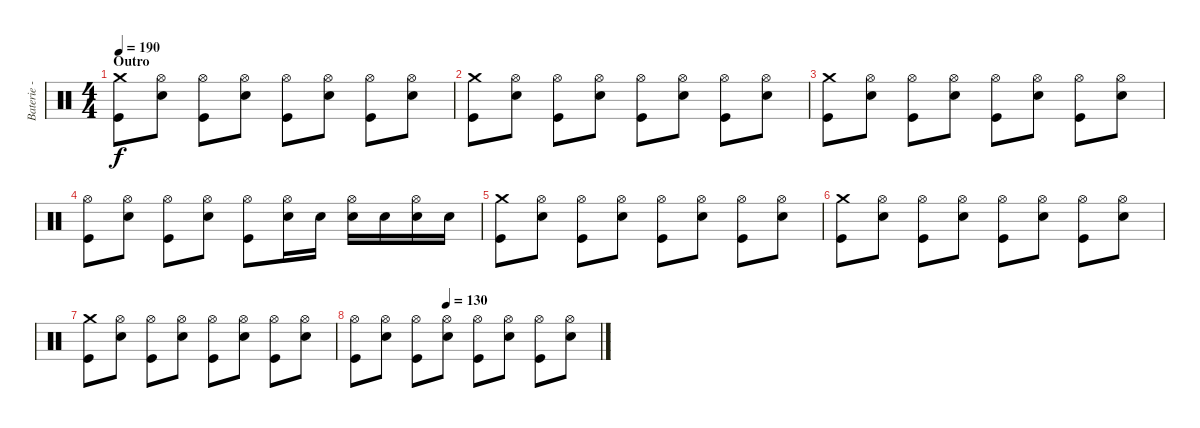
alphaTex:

\track ("Baterie - Alex" "Baterie - ") {instrument percussion}
\staff {score}
\articulation defaults
\ts (4 4)
\section ("" "Outro")
\tempo 190
\clef neutral
\ks c
("Crash medium (hit)" "Kick (hit)").8{dy f} ("Hi-Hat (open)" "Electric Snare (hit)").8 ("Hi-Hat (open)" "Kick (hit)").8 ("Hi-Hat (open)" "Electric Snare (hit)").8 ("Hi-Hat (open)" "Kick (hit)").8 ("Hi-Hat (open)" "Electric Snare (hit)").8 ("Hi-Hat (open)" "Kick (hit)").8 ("Hi-Hat (open)" "Electric Snare (hit)").8 |
("Crash medium (hit)" "Kick (hit)").8 ("Hi-Hat (open)" "Electric Snare (hit)").8 ("Hi-Hat (open)" "Kick (hit)").8 ("Hi-Hat (open)" "Electric Snare (hit)").8 ("Hi-Hat (open)" "Kick (hit)").8 ("Hi-Hat (open)" "Electric Snare (hit)").8 ("Hi-Hat (open)" "Kick (hit)").8 ("Hi-Hat (open)" "Electric Snare (hit)").8 |
("Crash medium (hit)" "Kick (hit)").8 ("Hi-Hat (open)" "Electric Snare (hit)").8 ("Hi-Hat (open)" "Kick (hit)").8 ("Hi-Hat (open)" "Electric Snare (hit)").8 ("Hi-Hat (open)" "Kick (hit)").8 ("Hi-Hat (open)" "Electric Snare (hit)").8 ("Hi-Hat (open)" "Kick (hit)").8 ("Hi-Hat (open)" "Electric Snare (hit)").8 |
("Hi-Hat (open)" "Kick (hit)").8 ("Hi-Hat (open)" "Electric Snare (hit)").8 ("Hi-Hat (open)" "Kick (hit)").8 ("Hi-Hat (open)" "Electric Snare (hit)").8 ("Hi-Hat (open)" "Kick (hit)").8 ("Hi-Hat (open)" "Electric Snare (hit)").16 "Electric Snare (hit)".16 ("Hi-Hat (open)" "Electric Snare (hit)").16 "Electric Snare (hit)".16 ("Hi-Hat (open)" "Electric Snare (hit)").16 "Electric Snare (hit)".16 |
("Crash medium (hit)" "Kick (hit)").8 ("Hi-Hat (open)" "Electric Snare (hit)").8 ("Hi-Hat (open)" "Kick (hit)").8 ("Hi-Hat (open)" "Electric Snare (hit)").8 ("Hi-Hat (open)" "Kick (hit)").8 ("Hi-Hat (open)" "Electric Snare (hit)").8 ("Hi-Hat (open)" "Kick (hit)").8 ("Hi-Hat (open)" "Electric Snare (hit)").8 |
("Crash medium (hit)" "Kick (hit)").8 ("Hi-Hat (open)" "Electric Snare (hit)").8 ("Hi-Hat (open)" "Kick (hit)").8 ("Hi-Hat (open)" "Electric Snare (hit)").8 ("Hi-Hat (open)" "Kick (hit)").8 ("Hi-Hat (open)" "Electric Snare (hit)").8 ("Hi-Hat (open)" "Kick (hit)").8 ("Hi-Hat (open)" "Electric Snare (hit)").8 |
("Crash medium (hit)" "Kick (hit)").8 ("Hi-Hat (open)" "Electric Snare (hit)").8 ("Hi-Hat (open)" "Kick (hit)").8 ("Hi-Hat (open)" "Electric Snare (hit)").8 ("Hi-Hat (open)" "Kick (hit)").8 ("Hi-Hat (open)" "Electric Snare (hit)").8 ("Hi-Hat (open)" "Kick (hit)").8 ("Hi-Hat (open)" "Electric Snare (hit)").8 |
\tempo (130 0.375)
("Hi-Hat (open)" "Kick (hit)").8 ("Hi-Hat (open)" "Electric Snare (hit)").8 ("Hi-Hat (open)" "Kick (hit)").8 ("Hi-Hat (open)" "Electric Snare (hit)").8 ("Hi-Hat (open)" "Kick (hit)").8 ("Hi-Hat (open)" "Electric Snare (hit)").8 ("Hi-Hat (open)" "Kick (hit)").8 ("Hi-Hat (open)" "Electric Snare (hit)").8
